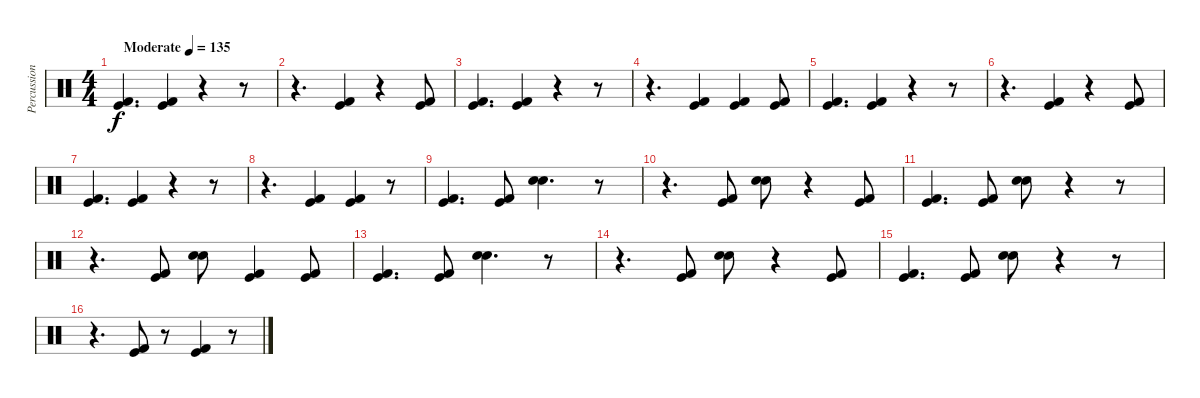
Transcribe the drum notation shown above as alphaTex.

\track ("Percussion" "Percussion") {instrument percussion}
\staff {score}
\articulation defaults
\ts (4 4)
\tempo (135 "Moderate")
\clef neutral
\ks c
("Kick (hit) 2" "Kick (hit)").4{d dy f} ("Kick (hit) 2" "Kick (hit)").4 r.4 r.8 |
r.4{d} ("Kick (hit) 2" "Kick (hit)").4 r.4 ("Kick (hit) 2" "Kick (hit)").8 |
("Kick (hit) 2" "Kick (hit)").4{d} ("Kick (hit) 2" "Kick (hit)").4 r.4 r.8 |
r.4{d} ("Kick (hit) 2" "Kick (hit)").4 ("Kick (hit) 2" "Kick (hit)").4 ("Kick (hit) 2" "Kick (hit)").8 |
("Kick (hit) 2" "Kick (hit)").4{d} ("Kick (hit) 2" "Kick (hit)").4 r.4 r.8 |
r.4{d} ("Kick (hit) 2" "Kick (hit)").4 r.4 ("Kick (hit) 2" "Kick (hit)").8 |
("Kick (hit) 2" "Kick (hit)").4{d} ("Kick (hit) 2" "Kick (hit)").4 r.4 r.8 |
r.4{d} ("Kick (hit) 2" "Kick (hit)").4 ("Kick (hit) 2" "Kick (hit)").4 r.8 |
("Kick (hit) 2" "Kick (hit)").4{d} ("Kick (hit) 2" "Kick (hit)").8 ("Electric Snare (hit)" "Hand Clap (hit)").4{d} r.8 |
r.4{d} ("Kick (hit) 2" "Kick (hit)").8 ("Electric Snare (hit)" "Hand Clap (hit)").8 r.4 ("Kick (hit) 2" "Kick (hit)").8 |
("Kick (hit) 2" "Kick (hit)").4{d} ("Kick (hit) 2" "Kick (hit)").8 ("Electric Snare (hit)" "Hand Clap (hit)").8 r.4 r.8 |
r.4{d} ("Kick (hit) 2" "Kick (hit)").8 ("Electric Snare (hit)" "Hand Clap (hit)").8 ("Kick (hit) 2" "Kick (hit)").4 ("Kick (hit) 2" "Kick (hit)").8 |
("Kick (hit) 2" "Kick (hit)").4{d} ("Kick (hit) 2" "Kick (hit)").8 ("Electric Snare (hit)" "Hand Clap (hit)").4{d} r.8 |
r.4{d} ("Kick (hit) 2" "Kick (hit)").8 ("Electric Snare (hit)" "Hand Clap (hit)").8 r.4 ("Kick (hit) 2" "Kick (hit)").8 |
("Kick (hit) 2" "Kick (hit)").4{d} ("Kick (hit) 2" "Kick (hit)").8 ("Electric Snare (hit)" "Hand Clap (hit)").8 r.4 r.8 |
r.4{d} ("Kick (hit) 2" "Kick (hit)").8 r.8 ("Kick (hit) 2" "Kick (hit)").4 r.8
